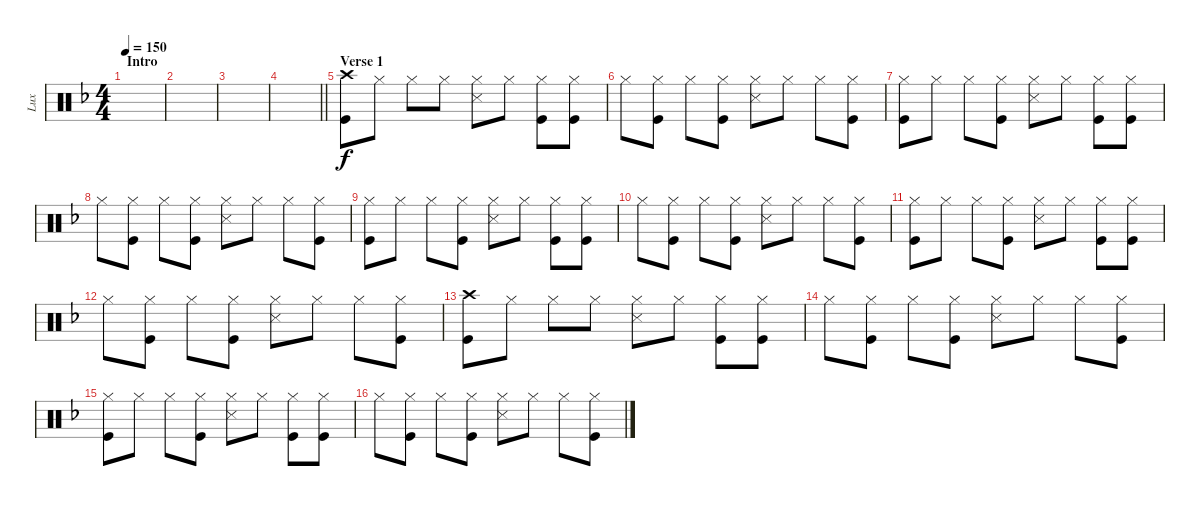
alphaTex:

\track ("Lux" "Lux") {instrument percussion}
\staff {score}
\articulation defaults
\ts (4 4)
\section ("" "Intro")
\tempo 150
\clef neutral
\ks dminor
|
|
|
\barLineRight lightlight
|
\section ("" "Verse 1")
("Crash high (hit)" "Kick (hit)").8 "Hi-Hat (closed)".8 "Hi-Hat (closed)".8 "Hi-Hat (closed)".8 ("Hi-Hat (closed)" "Snare (side stick) 3").8 "Hi-Hat (closed)".8 ("Hi-Hat (closed)" "Kick (hit)").8 ("Hi-Hat (closed)" "Kick (hit)").8 |
"Hi-Hat (closed)".8 ("Hi-Hat (closed)" "Kick (hit)").8 "Hi-Hat (closed)".8 ("Hi-Hat (closed)" "Kick (hit)").8 ("Hi-Hat (closed)" "Snare (side stick) 3").8 "Hi-Hat (closed)".8 "Hi-Hat (closed)".8 ("Hi-Hat (closed)" "Kick (hit)").8 |
("Hi-Hat (closed)" "Kick (hit)").8 "Hi-Hat (closed)".8 "Hi-Hat (closed)".8 ("Hi-Hat (closed)" "Kick (hit)").8 ("Hi-Hat (closed)" "Snare (side stick) 3").8 "Hi-Hat (closed)".8 ("Hi-Hat (closed)" "Kick (hit)").8 ("Hi-Hat (closed)" "Kick (hit)").8 |
"Hi-Hat (closed)".8 ("Hi-Hat (closed)" "Kick (hit)").8 "Hi-Hat (closed)".8 ("Hi-Hat (closed)" "Kick (hit)").8 ("Hi-Hat (closed)" "Snare (side stick) 3").8 "Hi-Hat (closed)".8 "Hi-Hat (closed)".8 ("Hi-Hat (closed)" "Kick (hit)").8 |
("Hi-Hat (closed)" "Kick (hit)").8 "Hi-Hat (closed)".8 "Hi-Hat (closed)".8 ("Hi-Hat (closed)" "Kick (hit)").8 ("Hi-Hat (closed)" "Snare (side stick) 3").8 "Hi-Hat (closed)".8 ("Hi-Hat (closed)" "Kick (hit)").8 ("Hi-Hat (closed)" "Kick (hit)").8 |
"Hi-Hat (closed)".8 ("Hi-Hat (closed)" "Kick (hit)").8 "Hi-Hat (closed)".8 ("Hi-Hat (closed)" "Kick (hit)").8 ("Hi-Hat (closed)" "Snare (side stick) 3").8 "Hi-Hat (closed)".8 "Hi-Hat (closed)".8 ("Hi-Hat (closed)" "Kick (hit)").8 |
("Hi-Hat (closed)" "Kick (hit)").8 "Hi-Hat (closed)".8 "Hi-Hat (closed)".8 ("Hi-Hat (closed)" "Kick (hit)").8 ("Hi-Hat (closed)" "Snare (side stick) 3").8 "Hi-Hat (closed)".8 ("Hi-Hat (closed)" "Kick (hit)").8 ("Hi-Hat (closed)" "Kick (hit)").8 |
"Hi-Hat (closed)".8 ("Hi-Hat (closed)" "Kick (hit)").8 "Hi-Hat (closed)".8 ("Hi-Hat (closed)" "Kick (hit)").8 ("Hi-Hat (closed)" "Snare (side stick) 3").8 "Hi-Hat (closed)".8 "Hi-Hat (closed)".8 ("Hi-Hat (closed)" "Kick (hit)").8 |
("Crash high (hit)" "Kick (hit)").8 "Hi-Hat (closed)".8 "Hi-Hat (closed)".8 "Hi-Hat (closed)".8 ("Hi-Hat (closed)" "Snare (side stick) 3").8 "Hi-Hat (closed)".8 ("Hi-Hat (closed)" "Kick (hit)").8 ("Hi-Hat (closed)" "Kick (hit)").8 |
"Hi-Hat (closed)".8 ("Hi-Hat (closed)" "Kick (hit)").8 "Hi-Hat (closed)".8 ("Hi-Hat (closed)" "Kick (hit)").8 ("Hi-Hat (closed)" "Snare (side stick) 3").8 "Hi-Hat (closed)".8 "Hi-Hat (closed)".8 ("Hi-Hat (closed)" "Kick (hit)").8 |
("Hi-Hat (closed)" "Kick (hit)").8 "Hi-Hat (closed)".8 "Hi-Hat (closed)".8 ("Hi-Hat (closed)" "Kick (hit)").8 ("Hi-Hat (closed)" "Snare (side stick) 3").8 "Hi-Hat (closed)".8 ("Hi-Hat (closed)" "Kick (hit)").8 ("Hi-Hat (closed)" "Kick (hit)").8 |
"Hi-Hat (closed)".8 ("Hi-Hat (closed)" "Kick (hit)").8 "Hi-Hat (closed)".8 ("Hi-Hat (closed)" "Kick (hit)").8 ("Hi-Hat (closed)" "Snare (side stick) 3").8 "Hi-Hat (closed)".8 "Hi-Hat (closed)".8 ("Hi-Hat (closed)" "Kick (hit)").8
